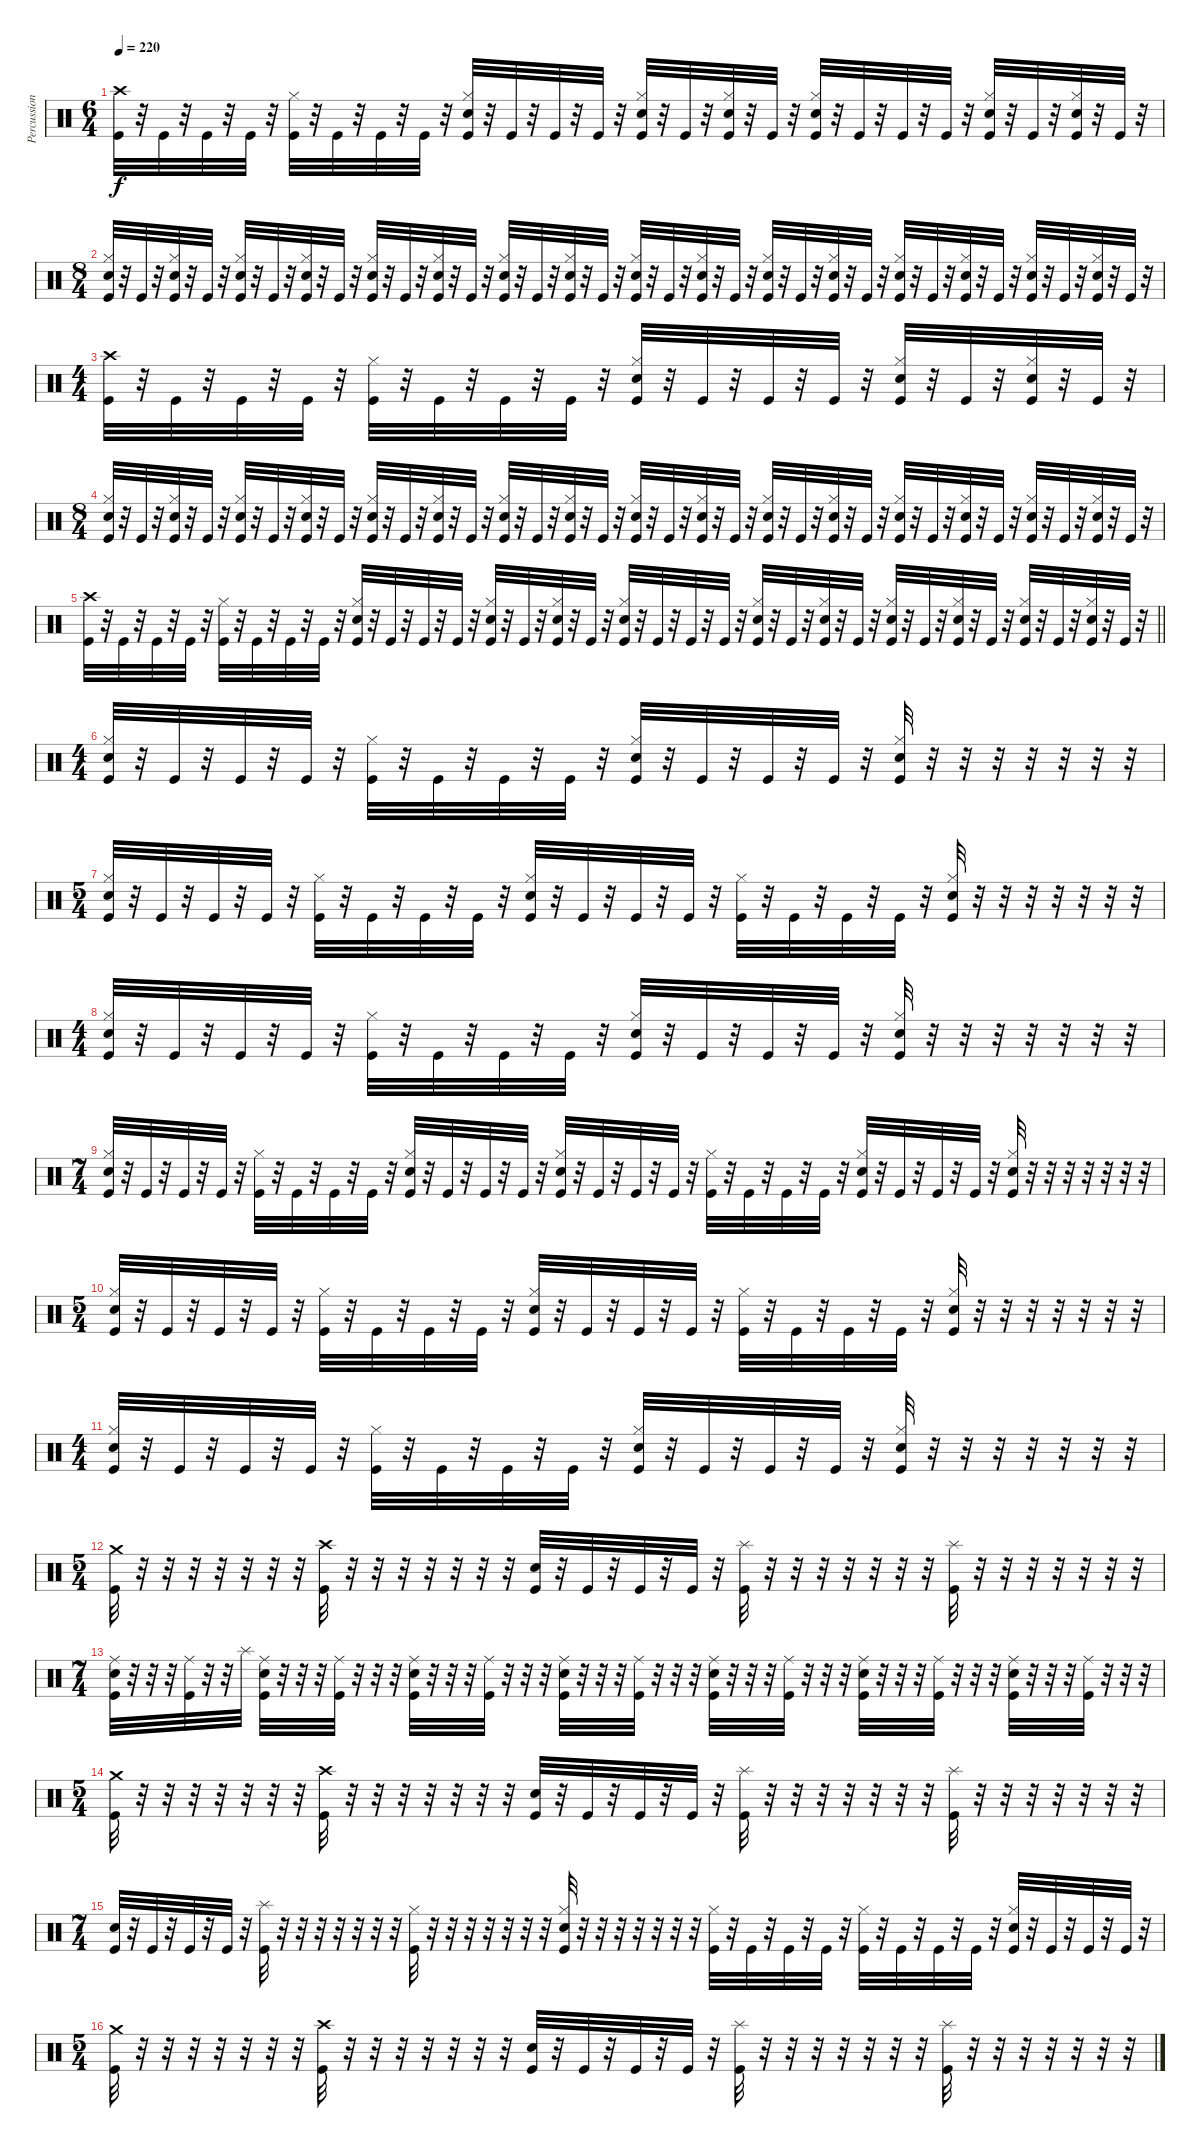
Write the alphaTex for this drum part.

\track ("Percussion" "Percussion") {instrument percussion}
\staff {score}
\articulation defaults
\ts (6 4)
\tempo 220
\clef neutral
\ks c
("Kick (hit)" "Crash high (hit)").32{dy f} r.32 "Kick (hit)".32 r.32 "Kick (hit)".32 r.32 "Kick (hit)".32 r.32 ("Kick (hit)" "Hi-Hat (closed)").32 r.32 "Kick (hit)".32 r.32 "Kick (hit)".32 r.32 "Kick (hit)".32 r.32 ("Kick (hit)" "Electric Snare (hit)" "Hi-Hat (closed)").32 r.32 "Kick (hit)".32 r.32 "Kick (hit)".32 r.32 "Kick (hit)".32 r.32 ("Kick (hit)" "Electric Snare (hit)" "Hi-Hat (closed)").32 r.32 "Kick (hit)".32 r.32 ("Kick (hit)" "Electric Snare (hit)" "Hi-Hat (closed)").32 r.32 "Kick (hit)".32 r.32 ("Kick (hit)" "Electric Snare (hit)" "Hi-Hat (closed)").32 r.32 "Kick (hit)".32 r.32 "Kick (hit)".32 r.32 "Kick (hit)".32 r.32 ("Kick (hit)" "Electric Snare (hit)" "Hi-Hat (closed)").32 r.32 "Kick (hit)".32 r.32 ("Kick (hit)" "Electric Snare (hit)" "Hi-Hat (closed)").32 r.32 "Kick (hit)".32 r.32 |
\ts (8 4)
("Electric Snare (hit)" "Kick (hit)" "Hi-Hat (closed)").32 r.32 "Kick (hit)".32 r.32 ("Electric Snare (hit)" "Kick (hit)" "Hi-Hat (closed)").32 r.32 "Kick (hit)".32 r.32 ("Electric Snare (hit)" "Kick (hit)" "Hi-Hat (closed)").32 r.32 "Kick (hit)".32 r.32 ("Electric Snare (hit)" "Kick (hit)" "Hi-Hat (closed)").32 r.32 "Kick (hit)".32 r.32 ("Electric Snare (hit)" "Kick (hit)" "Hi-Hat (closed)").32 r.32 "Kick (hit)".32 r.32 ("Electric Snare (hit)" "Kick (hit)" "Hi-Hat (closed)").32 r.32 "Kick (hit)".32 r.32 ("Electric Snare (hit)" "Kick (hit)" "Hi-Hat (closed)").32 r.32 "Kick (hit)".32 r.32 ("Electric Snare (hit)" "Kick (hit)" "Hi-Hat (closed)").32 r.32 "Kick (hit)".32 r.32 ("Electric Snare (hit)" "Kick (hit)" "Hi-Hat (closed)").32 r.32 "Kick (hit)".32 r.32 ("Electric Snare (hit)" "Kick (hit)" "Hi-Hat (closed)").32 r.32 "Kick (hit)".32 r.32 ("Electric Snare (hit)" "Kick (hit)" "Hi-Hat (closed)").32 r.32 "Kick (hit)".32 r.32 ("Electric Snare (hit)" "Kick (hit)" "Hi-Hat (closed)").32 r.32 "Kick (hit)".32 r.32 ("Kick (hit)" "Electric Snare (hit)" "Hi-Hat (closed)").32 r.32 "Kick (hit)".32 r.32 ("Kick (hit)" "Electric Snare (hit)" "Hi-Hat (closed)").32 r.32 "Kick (hit)".32 r.32 ("Kick (hit)" "Electric Snare (hit)" "Hi-Hat (closed)").32 r.32 "Kick (hit)".32 r.32 ("Kick (hit)" "Electric Snare (hit)" "Hi-Hat (closed)").32 r.32 "Kick (hit)".32 r.32 |
\ts (4 4)
("Kick (hit)" "Crash high (hit)").32 r.32 "Kick (hit)".32 r.32 "Kick (hit)".32 r.32 "Kick (hit)".32 r.32 ("Kick (hit)" "Hi-Hat (closed)").32 r.32 "Kick (hit)".32 r.32 "Kick (hit)".32 r.32 "Kick (hit)".32 r.32 ("Kick (hit)" "Electric Snare (hit)" "Hi-Hat (closed)").32 r.32 "Kick (hit)".32 r.32 "Kick (hit)".32 r.32 "Kick (hit)".32 r.32 ("Kick (hit)" "Electric Snare (hit)" "Hi-Hat (closed)").32 r.32 "Kick (hit)".32 r.32 ("Kick (hit)" "Electric Snare (hit)" "Hi-Hat (closed)").32 r.32 "Kick (hit)".32 r.32 |
\ts (8 4)
("Electric Snare (hit)" "Kick (hit)" "Hi-Hat (closed)").32 r.32 "Kick (hit)".32 r.32 ("Electric Snare (hit)" "Kick (hit)" "Hi-Hat (closed)").32 r.32 "Kick (hit)".32 r.32 ("Electric Snare (hit)" "Kick (hit)" "Hi-Hat (closed)").32 r.32 "Kick (hit)".32 r.32 ("Electric Snare (hit)" "Kick (hit)" "Hi-Hat (closed)").32 r.32 "Kick (hit)".32 r.32 ("Electric Snare (hit)" "Kick (hit)" "Hi-Hat (closed)").32 r.32 "Kick (hit)".32 r.32 ("Electric Snare (hit)" "Kick (hit)" "Hi-Hat (closed)").32 r.32 "Kick (hit)".32 r.32 ("Electric Snare (hit)" "Kick (hit)" "Hi-Hat (closed)").32 r.32 "Kick (hit)".32 r.32 ("Electric Snare (hit)" "Kick (hit)" "Hi-Hat (closed)").32 r.32 "Kick (hit)".32 r.32 ("Electric Snare (hit)" "Kick (hit)" "Hi-Hat (closed)").32 r.32 "Kick (hit)".32 r.32 ("Electric Snare (hit)" "Kick (hit)" "Hi-Hat (closed)").32 r.32 "Kick (hit)".32 r.32 ("Electric Snare (hit)" "Kick (hit)" "Hi-Hat (closed)").32 r.32 "Kick (hit)".32 r.32 ("Electric Snare (hit)" "Kick (hit)" "Hi-Hat (closed)").32 r.32 "Kick (hit)".32 r.32 ("Kick (hit)" "Electric Snare (hit)" "Hi-Hat (closed)").32 r.32 "Kick (hit)".32 r.32 ("Kick (hit)" "Electric Snare (hit)" "Hi-Hat (closed)").32 r.32 "Kick (hit)".32 r.32 ("Kick (hit)" "Electric Snare (hit)" "Hi-Hat (closed)").32 r.32 "Kick (hit)".32 r.32 ("Kick (hit)" "Electric Snare (hit)" "Hi-Hat (closed)").32 r.32 "Kick (hit)".32 r.32 |
\barLineRight lightlight
("Kick (hit)" "Crash high (hit)").32 r.32 "Kick (hit)".32 r.32 "Kick (hit)".32 r.32 "Kick (hit)".32 r.32 ("Kick (hit)" "Hi-Hat (closed)").32 r.32 "Kick (hit)".32 r.32 "Kick (hit)".32 r.32 "Kick (hit)".32 r.32 ("Kick (hit)" "Electric Snare (hit)" "Hi-Hat (closed)").32 r.32 "Kick (hit)".32 r.32 "Kick (hit)".32 r.32 "Kick (hit)".32 r.32 ("Kick (hit)" "Electric Snare (hit)" "Hi-Hat (closed)").32 r.32 "Kick (hit)".32 r.32 ("Kick (hit)" "Electric Snare (hit)" "Hi-Hat (closed)").32 r.32 "Kick (hit)".32 r.32 ("Kick (hit)" "Electric Snare (hit)" "Hi-Hat (closed)").32 r.32 "Kick (hit)".32 r.32 "Kick (hit)".32 r.32 "Kick (hit)".32 r.32 ("Kick (hit)" "Electric Snare (hit)" "Hi-Hat (closed)").32 r.32 "Kick (hit)".32 r.32 ("Kick (hit)" "Electric Snare (hit)" "Hi-Hat (closed)").32 r.32 "Kick (hit)".32 r.32 ("Kick (hit)" "Electric Snare (hit)" "Hi-Hat (closed)").32 r.32 "Kick (hit)".32 r.32 ("Kick (hit)" "Electric Snare (hit)" "Hi-Hat (closed)").32 r.32 "Kick (hit)".32 r.32 ("Kick (hit)" "Electric Snare (hit)" "Hi-Hat (closed)").32 r.32 "Kick (hit)".32 r.32 ("Kick (hit)" "Electric Snare (hit)" "Hi-Hat (closed)").32 r.32 "Kick (hit)".32 r.32 |
\ts (4 4)
("Kick (hit)" "Electric Snare (hit)" "Hi-Hat (closed)").32 r.32 "Kick (hit)".32 r.32 "Kick (hit)".32 r.32 "Kick (hit)".32 r.32 ("Kick (hit)" "Hi-Hat (closed)").32 r.32 "Kick (hit)".32 r.32 "Kick (hit)".32 r.32 "Kick (hit)".32 r.32 ("Kick (hit)" "Electric Snare (hit)" "Hi-Hat (closed)").32 r.32 "Kick (hit)".32 r.32 "Kick (hit)".32 r.32 "Kick (hit)".32 r.32 ("Kick (hit)" "Electric Snare (hit)" "Hi-Hat (closed)").32 r.32 r.32 r.32 r.32 r.32 r.32 r.32 |
\ts (5 4)
("Kick (hit)" "Electric Snare (hit)" "Hi-Hat (closed)").32 r.32 "Kick (hit)".32 r.32 "Kick (hit)".32 r.32 "Kick (hit)".32 r.32 ("Kick (hit)" "Hi-Hat (closed)").32 r.32 "Kick (hit)".32 r.32 "Kick (hit)".32 r.32 "Kick (hit)".32 r.32 ("Kick (hit)" "Electric Snare (hit)" "Hi-Hat (closed)").32 r.32 "Kick (hit)".32 r.32 "Kick (hit)".32 r.32 "Kick (hit)".32 r.32 ("Kick (hit)" "Hi-Hat (closed)").32 r.32 "Kick (hit)".32 r.32 "Kick (hit)".32 r.32 "Kick (hit)".32 r.32 ("Kick (hit)" "Electric Snare (hit)" "Hi-Hat (closed)").32 r.32 r.32 r.32 r.32 r.32 r.32 r.32 |
\ts (4 4)
("Kick (hit)" "Electric Snare (hit)" "Hi-Hat (closed)").32 r.32 "Kick (hit)".32 r.32 "Kick (hit)".32 r.32 "Kick (hit)".32 r.32 ("Kick (hit)" "Hi-Hat (closed)").32 r.32 "Kick (hit)".32 r.32 "Kick (hit)".32 r.32 "Kick (hit)".32 r.32 ("Kick (hit)" "Electric Snare (hit)" "Hi-Hat (closed)").32 r.32 "Kick (hit)".32 r.32 "Kick (hit)".32 r.32 "Kick (hit)".32 r.32 ("Kick (hit)" "Electric Snare (hit)" "Hi-Hat (closed)").32 r.32 r.32 r.32 r.32 r.32 r.32 r.32 |
\ts (7 4)
("Kick (hit)" "Electric Snare (hit)" "Hi-Hat (closed)").32 r.32 "Kick (hit)".32 r.32 "Kick (hit)".32 r.32 "Kick (hit)".32 r.32 ("Kick (hit)" "Hi-Hat (closed)").32 r.32 "Kick (hit)".32 r.32 "Kick (hit)".32 r.32 "Kick (hit)".32 r.32 ("Kick (hit)" "Electric Snare (hit)" "Hi-Hat (closed)").32 r.32 "Kick (hit)".32 r.32 "Kick (hit)".32 r.32 "Kick (hit)".32 r.32 ("Kick (hit)" "Electric Snare (hit)" "Hi-Hat (closed)").32 r.32 "Kick (hit)".32 r.32 "Kick (hit)".32 r.32 "Kick (hit)".32 r.32 ("Kick (hit)" "Hi-Hat (closed)").32 r.32 "Kick (hit)".32 r.32 "Kick (hit)".32 r.32 "Kick (hit)".32 r.32 ("Kick (hit)" "Electric Snare (hit)" "Hi-Hat (closed)").32 r.32 "Kick (hit)".32 r.32 "Kick (hit)".32 r.32 "Kick (hit)".32 r.32 ("Kick (hit)" "Electric Snare (hit)" "Hi-Hat (closed)").32 r.32 r.32 r.32 r.32 r.32 r.32 r.32 |
\ts (5 4)
("Kick (hit)" "Electric Snare (hit)" "Hi-Hat (closed)").32 r.32 "Kick (hit)".32 r.32 "Kick (hit)".32 r.32 "Kick (hit)".32 r.32 ("Kick (hit)" "Hi-Hat (closed)").32 r.32 "Kick (hit)".32 r.32 "Kick (hit)".32 r.32 "Kick (hit)".32 r.32 ("Kick (hit)" "Electric Snare (hit)" "Hi-Hat (closed)").32 r.32 "Kick (hit)".32 r.32 "Kick (hit)".32 r.32 "Kick (hit)".32 r.32 ("Kick (hit)" "Hi-Hat (closed)").32 r.32 "Kick (hit)".32 r.32 "Kick (hit)".32 r.32 "Kick (hit)".32 r.32 ("Kick (hit)" "Electric Snare (hit)" "Hi-Hat (closed)").32 r.32 r.32 r.32 r.32 r.32 r.32 r.32 |
\ts (4 4)
("Kick (hit)" "Electric Snare (hit)" "Hi-Hat (closed)").32 r.32 "Kick (hit)".32 r.32 "Kick (hit)".32 r.32 "Kick (hit)".32 r.32 ("Kick (hit)" "Hi-Hat (closed)").32 r.32 "Kick (hit)".32 r.32 "Kick (hit)".32 r.32 "Kick (hit)".32 r.32 ("Kick (hit)" "Electric Snare (hit)" "Hi-Hat (closed)").32 r.32 "Kick (hit)".32 r.32 "Kick (hit)".32 r.32 "Kick (hit)".32 r.32 ("Kick (hit)" "Electric Snare (hit)" "Hi-Hat (closed)").32 r.32 r.32 r.32 r.32 r.32 r.32 r.32 |
\ts (5 4)
("Kick (hit)" "Crash medium (hit)").32 r.32 r.32 r.32 r.32 r.32 r.32 r.32 ("Kick (hit)" "Crash high (hit)").32 r.32 r.32 r.32 r.32 r.32 r.32 r.32 ("Kick (hit)" "Electric Snare (hit)").32 r.32 "Kick (hit)".32 r.32 "Kick (hit)".32 r.32 "Kick (hit)".32 r.32 ("Kick (hit)" "Splash (hit)").32 r.32 r.32 r.32 r.32 r.32 r.32 r.32 ("Kick (hit)" "Splash (hit)").32 r.32 r.32 r.32 r.32 r.32 r.32 r.32 |
\ts (7 4)
("Kick (hit)" "Electric Snare (hit)" "Ride (middle)").32 r.32 r.32 r.32 ("Kick (hit)" "Ride (middle)").32 r.32 r.32 "Splash (hit)".32 ("Kick (hit)" "Electric Snare (hit)" "Ride (middle)").32 r.32 r.32 r.32 ("Kick (hit)" "Ride (middle)").32 r.32 r.32 r.32 ("Kick (hit)" "Electric Snare (hit)" "Ride (middle)").32 r.32 r.32 r.32 ("Kick (hit)" "Ride (middle)").32 r.32 r.32 r.32 ("Kick (hit)" "Electric Snare (hit)" "Ride (middle)").32 r.32 r.32 r.32 ("Kick (hit)" "Ride (middle)").32 r.32 r.32 r.32 ("Kick (hit)" "Electric Snare (hit)" "Ride (middle)").32 r.32 r.32 r.32 ("Kick (hit)" "Ride (middle)").32 r.32 r.32 r.32 ("Kick (hit)" "Electric Snare (hit)" "Ride (middle)").32 r.32 r.32 r.32 ("Kick (hit)" "Ride (middle)").32 r.32 r.32 r.32 ("Kick (hit)" "Electric Snare (hit)" "Ride (middle)").32 r.32 r.32 r.32 ("Kick (hit)" "Ride (middle)").32 r.32 r.32 r.32 |
\ts (5 4)
("Kick (hit)" "Crash medium (hit)").32 r.32 r.32 r.32 r.32 r.32 r.32 r.32 ("Kick (hit)" "Crash high (hit)").32 r.32 r.32 r.32 r.32 r.32 r.32 r.32 ("Kick (hit)" "Electric Snare (hit)").32 r.32 "Kick (hit)".32 r.32 "Kick (hit)".32 r.32 "Kick (hit)".32 r.32 ("Kick (hit)" "Splash (hit)").32 r.32 r.32 r.32 r.32 r.32 r.32 r.32 ("Kick (hit)" "Splash (hit)").32 r.32 r.32 r.32 r.32 r.32 r.32 r.32 |
\ts (7 4)
("Electric Snare (hit)" "Kick (hit)").32 r.32 "Kick (hit)".32 r.32 "Kick (hit)".32 r.32 "Kick (hit)".32 r.32 ("Kick (hit)" "Splash (hit)").32 r.32 r.32 r.32 r.32 r.32 r.32 r.32 ("Kick (hit)" "Hi-Hat (closed)").32 r.32 r.32 r.32 r.32 r.32 r.32 r.32 ("Kick (hit)" "Electric Snare (hit)" "Hi-Hat (closed)").32 r.32 r.32 r.32 r.32 r.32 r.32 r.32 ("Kick (hit)" "Hi-Hat (closed)").32 r.32 "Kick (hit)".32 r.32 "Kick (hit)".32 r.32 "Kick (hit)".32 r.32 ("Kick (hit)" "Hi-Hat (closed)").32 r.32 "Kick (hit)".32 r.32 "Kick (hit)".32 r.32 "Kick (hit)".32 r.32 ("Kick (hit)" "Electric Snare (hit)" "Hi-Hat (closed)").32 r.32 "Kick (hit)".32 r.32 "Kick (hit)".32 r.32 "Kick (hit)".32 r.32 |
\ts (5 4)
("Kick (hit)" "Crash medium (hit)").32 r.32 r.32 r.32 r.32 r.32 r.32 r.32 ("Kick (hit)" "Crash high (hit)").32 r.32 r.32 r.32 r.32 r.32 r.32 r.32 ("Kick (hit)" "Electric Snare (hit)").32 r.32 "Kick (hit)".32 r.32 "Kick (hit)".32 r.32 "Kick (hit)".32 r.32 ("Kick (hit)" "Splash (hit)").32 r.32 r.32 r.32 r.32 r.32 r.32 r.32 ("Kick (hit)" "Splash (hit)").32 r.32 r.32 r.32 r.32 r.32 r.32 r.32
